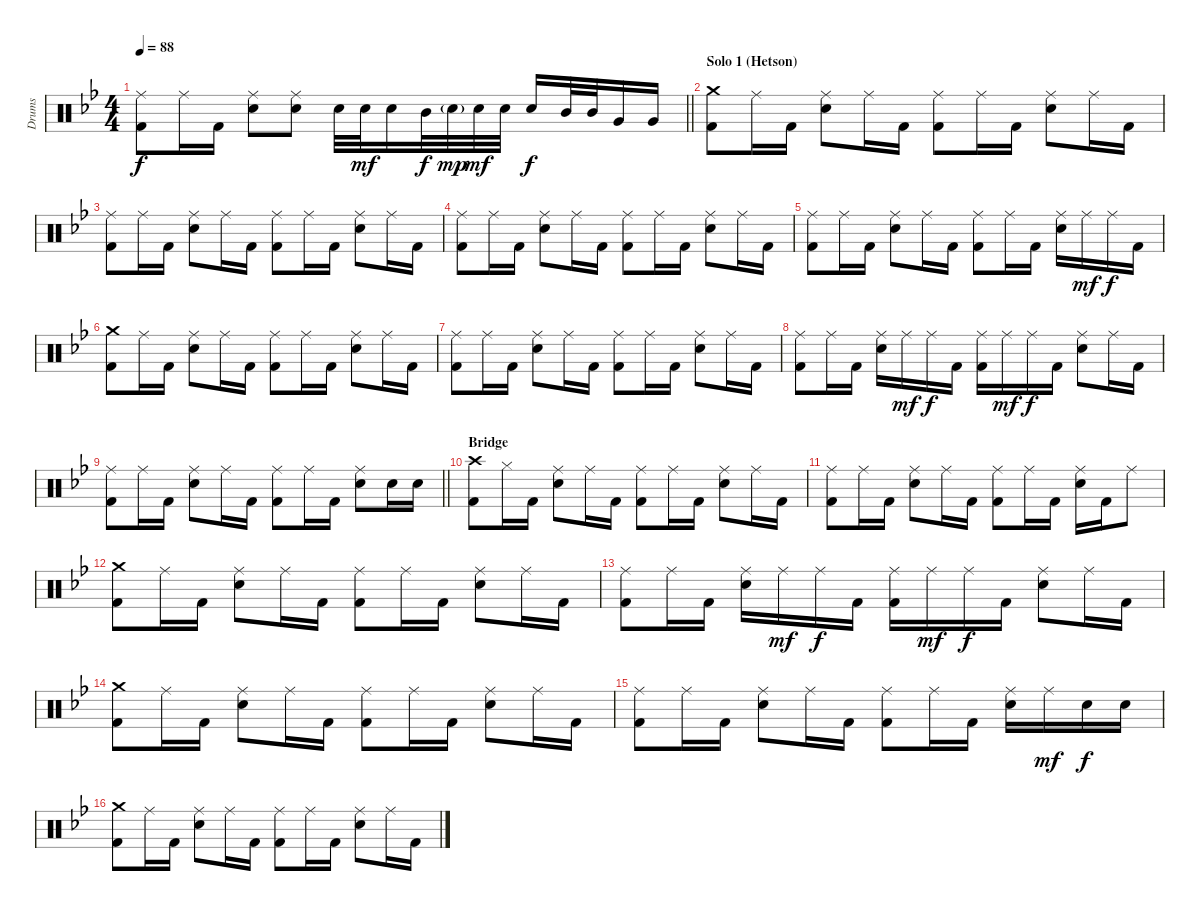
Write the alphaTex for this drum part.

\track ("Drums" "Drums") {instrument percussion}
\staff {score}
\articulation defaults
\ts (4 4)
\tempo 88
\clef neutral
\barLineRight lightlight
\ks gminor
("Ride (middle)" "Kick (hit) 2").8{dy f} "Ride (middle)".16 "Kick (hit) 2".16 ("Ride (middle)" "Electric Snare (hit)").8 ("Ride (middle)" "Electric Snare (hit)").8 "Electric Snare (hit)".32 "Electric Snare (hit)".32{dy mf} "Electric Snare (hit)".16 "Mid Tom (hit)".32{dy f} "Electric Snare (hit)"{g}.32{dy mp} "Electric Snare (hit)".32{dy mf} "Electric Snare (hit)".32 "Electric Snare (hit)".16{dy f} "Mid Tom (hit)".32 "Mid Tom (hit)".32 "Very Low Tom (hit)".16 "Very Low Tom (hit)".16 |
\section ("" "Solo 1 (Hetson)")
("Crash medium (hit)" "Kick (hit) 2").8 "Ride (middle)".16 "Kick (hit) 2".16 ("Ride (middle)" "Electric Snare (hit)").8 "Ride (middle)".16 "Kick (hit) 2".16 ("Ride (middle)" "Kick (hit) 2").8 "Ride (middle)".16 "Kick (hit) 2".16 ("Ride (middle)" "Electric Snare (hit)").8 "Ride (middle)".16 "Kick (hit) 2".16 |
("Ride (middle)" "Kick (hit) 2").8 "Ride (middle)".16 "Kick (hit) 2".16 ("Ride (middle)" "Electric Snare (hit)").8 "Ride (middle)".16 "Kick (hit) 2".16 ("Ride (middle)" "Kick (hit) 2").8 "Ride (middle)".16 "Kick (hit) 2".16 ("Ride (middle)" "Electric Snare (hit)").8 "Ride (middle)".16 "Kick (hit) 2".16 |
("Ride (middle)" "Kick (hit) 2").8 "Ride (middle)".16 "Kick (hit) 2".16 ("Ride (middle)" "Electric Snare (hit)").8 "Ride (middle)".16 "Kick (hit) 2".16 ("Ride (middle)" "Kick (hit) 2").8 "Ride (middle)".16 "Kick (hit) 2".16 ("Ride (middle)" "Electric Snare (hit)").8 "Ride (middle)".16 "Kick (hit) 2".16 |
("Ride (middle)" "Kick (hit) 2").8 "Ride (middle)".16 "Kick (hit) 2".16 ("Ride (middle)" "Electric Snare (hit)").8 "Ride (middle)".16 "Kick (hit) 2".16 ("Ride (middle)" "Kick (hit) 2").8 "Ride (middle)".16 "Kick (hit) 2".16 ("Ride (middle)" "Electric Snare (hit)").16 "Ride (middle)".16{dy mf} "Ride (middle)".16{dy f} "Kick (hit) 2".16 |
("Crash medium (hit)" "Kick (hit) 2").8 "Ride (middle)".16 "Kick (hit) 2".16 ("Ride (middle)" "Electric Snare (hit)").8 "Ride (middle)".16 "Kick (hit) 2".16 ("Ride (middle)" "Kick (hit) 2").8 "Ride (middle)".16 "Kick (hit) 2".16 ("Ride (middle)" "Electric Snare (hit)").8 "Ride (middle)".16 "Kick (hit) 2".16 |
("Ride (middle)" "Kick (hit) 2").8 "Ride (middle)".16 "Kick (hit) 2".16 ("Ride (middle)" "Electric Snare (hit)").8 "Ride (middle)".16 "Kick (hit) 2".16 ("Ride (middle)" "Kick (hit) 2").8 "Ride (middle)".16 "Kick (hit) 2".16 ("Ride (middle)" "Electric Snare (hit)").8 "Ride (middle)".16 "Kick (hit) 2".16 |
("Ride (middle)" "Kick (hit) 2").8 "Ride (middle)".16 "Kick (hit) 2".16 ("Ride (middle)" "Electric Snare (hit)").16 "Ride (middle)".16{dy mf} "Ride (middle)".16{dy f} "Kick (hit) 2".16 ("Ride (middle)" "Kick (hit) 2").16 "Ride (middle)".16{dy mf} "Ride (middle)".16{dy f} "Kick (hit) 2".16 ("Ride (middle)" "Electric Snare (hit)").8 "Ride (middle)".16 "Kick (hit) 2".16 |
\barLineRight lightlight
("Ride (middle)" "Kick (hit) 2").8 "Ride (middle)".16 "Kick (hit) 2".16 ("Ride (middle)" "Electric Snare (hit)").8 "Ride (middle)".16 "Kick (hit) 2".16 ("Ride (middle)" "Kick (hit) 2").8 "Ride (middle)".16 "Kick (hit) 2".16 ("Ride (middle)" "Electric Snare (hit)").8 "Electric Snare (hit)".16 "Electric Snare (hit)".16 |
\section ("" "Bridge")
("Crash high (hit)" "Kick (hit) 2").8 "Hi-Hat (closed)".16 "Kick (hit) 2".16 ("Ride (middle)" "Electric Snare (hit)").8 "Ride (middle)".16 "Kick (hit) 2".16 ("Ride (middle)" "Kick (hit) 2").8 "Ride (middle)".16 "Kick (hit) 2".16 ("Ride (middle)" "Electric Snare (hit)").8 "Ride (middle)".16 "Kick (hit) 2".16 |
("Ride (middle)" "Kick (hit) 2").8 "Ride (middle)".16 "Kick (hit) 2".16 ("Ride (middle)" "Electric Snare (hit)").8 "Ride (middle)".16 "Kick (hit) 2".16 ("Ride (middle)" "Kick (hit) 2").8 "Ride (middle)".16 "Kick (hit) 2".16 ("Ride (middle)" "Electric Snare (hit)").16 "Kick (hit) 2".16 "Ride (middle)".8 |
("Crash medium (hit)" "Kick (hit) 2").8 "Ride (middle)".16 "Kick (hit) 2".16 ("Ride (middle)" "Electric Snare (hit)").8 "Ride (middle)".16 "Kick (hit) 2".16 ("Ride (middle)" "Kick (hit) 2").8 "Ride (middle)".16 "Kick (hit) 2".16 ("Ride (middle)" "Electric Snare (hit)").8 "Ride (middle)".16 "Kick (hit) 2".16 |
("Ride (middle)" "Kick (hit) 2").8 "Ride (middle)".16 "Kick (hit) 2".16 ("Ride (middle)" "Electric Snare (hit)").16 "Ride (middle)".16{dy mf} "Ride (middle)".16{dy f} "Kick (hit) 2".16 ("Ride (middle)" "Kick (hit) 2").16 "Ride (middle)".16{dy mf} "Ride (middle)".16{dy f} "Kick (hit) 2".16 ("Ride (middle)" "Electric Snare (hit)").8 "Ride (middle)".16 "Kick (hit) 2".16 |
("Crash medium (hit)" "Kick (hit) 2").8 "Ride (middle)".16 "Kick (hit) 2".16 ("Ride (middle)" "Electric Snare (hit)").8 "Ride (middle)".16 "Kick (hit) 2".16 ("Ride (middle)" "Kick (hit) 2").8 "Ride (middle)".16 "Kick (hit) 2".16 ("Ride (middle)" "Electric Snare (hit)").8 "Ride (middle)".16 "Kick (hit) 2".16 |
("Ride (middle)" "Kick (hit) 2").8 "Ride (middle)".16 "Kick (hit) 2".16 ("Ride (middle)" "Electric Snare (hit)").8 "Ride (middle)".16 "Kick (hit) 2".16 ("Ride (middle)" "Kick (hit) 2").8 "Ride (middle)".16 "Kick (hit) 2".16 ("Ride (middle)" "Electric Snare (hit)").16 "Ride (middle)".16{dy mf} "Electric Snare (hit)".16{dy f} "Electric Snare (hit)".16 |
("Crash medium (hit)" "Kick (hit) 2").8 "Ride (middle)".16 "Kick (hit) 2".16 ("Ride (middle)" "Electric Snare (hit)").8 "Ride (middle)".16 "Kick (hit) 2".16 ("Ride (middle)" "Kick (hit) 2").8 "Ride (middle)".16 "Kick (hit) 2".16 ("Ride (middle)" "Electric Snare (hit)").8 "Ride (middle)".16 "Kick (hit) 2".16
